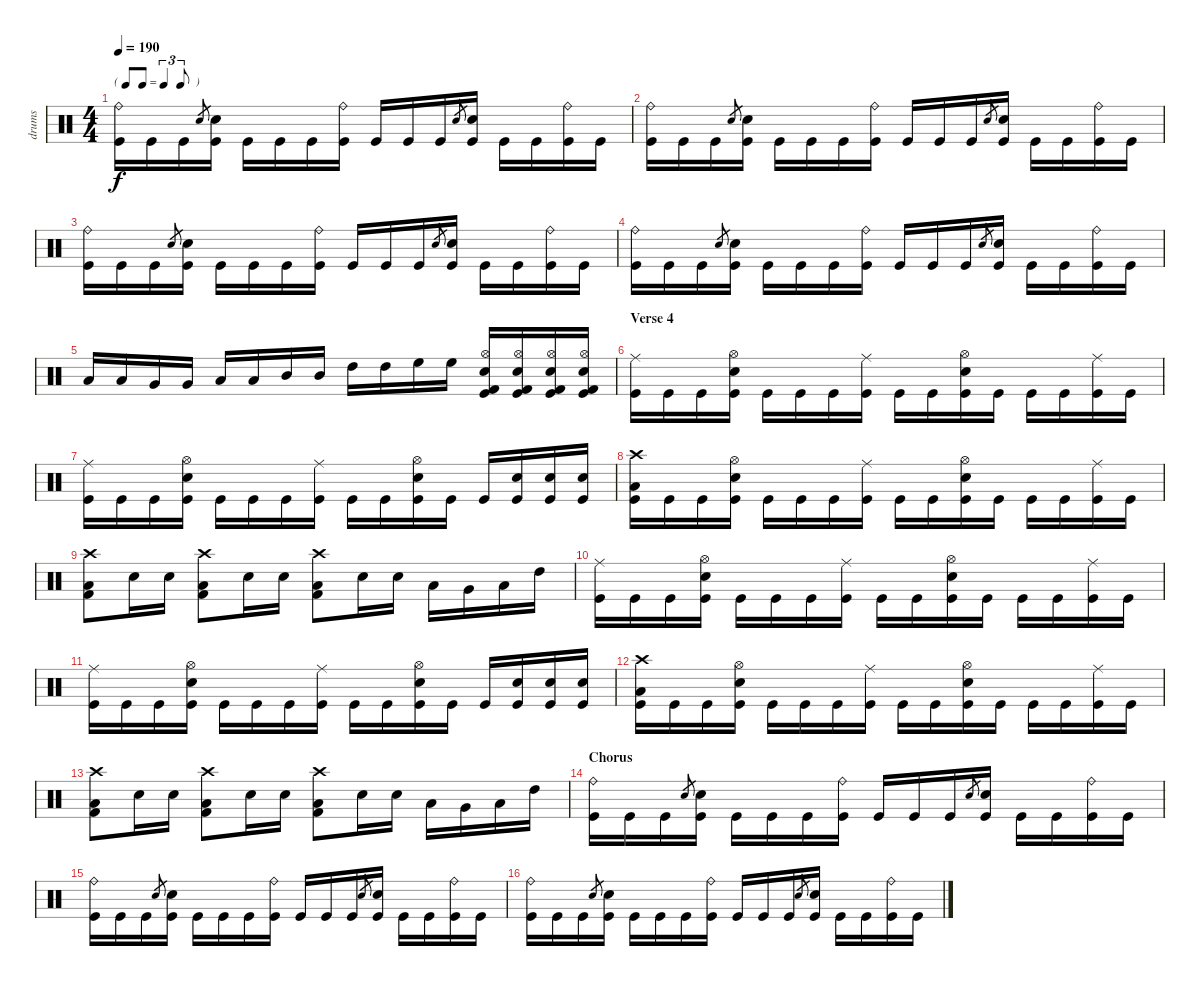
\track ("drums" "drums") {instrument percussion}
\staff {score}
\articulation defaults
\ts (4 4)
\tf triplet8th
\tempo 190
\clef neutral
\ks c
("Kick (hit)" "Ride (bell)").16{dy f} "Kick (hit)".16 "Kick (hit)".16 "Electric Snare (hit)".8{gr} ("Kick (hit)" "Electric Snare (hit)").16 "Kick (hit)".16 "Kick (hit)".16 "Kick (hit)".16 ("Kick (hit)" "Ride (bell)").16 "Kick (hit)".16 "Kick (hit)".16 "Kick (hit)".16 "Electric Snare (hit)".8{gr} ("Kick (hit)" "Electric Snare (hit)").16 "Kick (hit)".16 "Kick (hit)".16 ("Kick (hit)" "Ride (bell)").16 "Kick (hit)".16 |
("Kick (hit)" "Ride (bell)").16 "Kick (hit)".16 "Kick (hit)".16 "Electric Snare (hit)".8{gr} ("Kick (hit)" "Electric Snare (hit)").16 "Kick (hit)".16 "Kick (hit)".16 "Kick (hit)".16 ("Kick (hit)" "Ride (bell)").16 "Kick (hit)".16 "Kick (hit)".16 "Kick (hit)".16 "Electric Snare (hit)".8{gr} ("Kick (hit)" "Electric Snare (hit)").16 "Kick (hit)".16 "Kick (hit)".16 ("Kick (hit)" "Ride (bell)").16 "Kick (hit)".16 |
("Kick (hit)" "Ride (bell)").16 "Kick (hit)".16 "Kick (hit)".16 "Electric Snare (hit)".8{gr} ("Kick (hit)" "Electric Snare (hit)").16 "Kick (hit)".16 "Kick (hit)".16 "Kick (hit)".16 ("Kick (hit)" "Ride (bell)").16 "Kick (hit)".16 "Kick (hit)".16 "Kick (hit)".16 "Electric Snare (hit)".8{gr} ("Kick (hit)" "Electric Snare (hit)").16 "Kick (hit)".16 "Kick (hit)".16 ("Kick (hit)" "Ride (bell)").16 "Kick (hit)".16 |
("Kick (hit)" "Ride (bell)").16 "Kick (hit)".16 "Kick (hit)".16 "Electric Snare (hit)".8{gr} ("Kick (hit)" "Electric Snare (hit)").16 "Kick (hit)".16 "Kick (hit)".16 "Kick (hit)".16 ("Kick (hit)" "Ride (bell)").16 "Kick (hit)".16 "Kick (hit)".16 "Kick (hit)".16 "Electric Snare (hit)".8{gr} ("Kick (hit)" "Electric Snare (hit)").16 "Kick (hit)".16 "Kick (hit)".16 ("Kick (hit)" "Ride (bell)").16 "Kick (hit)".16 |
"Low Floor Tom (hit)".16 "Low Floor Tom (hit)".16 "Very Low Tom (hit)".16 "Very Low Tom (hit)".16 "Low Tom (hit)".16 "Low Tom (hit)".16 "Mid Tom (hit)".16 "Mid Tom (hit)".16 "High Tom (hit)".16 "High Tom (hit)".16 "High Floor Tom (hit)".16 "High Floor Tom (hit)".16 ("Hi-Hat (open)" "Snare (hit) 2" "Kick (hit) 2" "Kick (hit)").16 ("Hi-Hat (open)" "Snare (hit) 2" "Kick (hit) 2" "Kick (hit)").16 ("Hi-Hat (open)" "Snare (hit) 2" "Kick (hit) 2" "Kick (hit)").16 ("Hi-Hat (open)" "Snare (hit) 2" "Kick (hit) 2" "Kick (hit)").16 |
\section ("" "Verse 4")
("Ride (middle)" "Kick (hit)").16 "Kick (hit)".16 "Kick (hit)".16 ("Hi-Hat (open)" "Electric Snare (hit)" "Kick (hit)").16 "Kick (hit)".16 "Kick (hit)".16 "Kick (hit)".16 ("Ride (middle)" "Kick (hit)").16 "Kick (hit)".16 "Kick (hit)".16 ("Hi-Hat (open)" "Electric Snare (hit)" "Kick (hit)").16 "Kick (hit)".16 "Kick (hit)".16 "Kick (hit)".16 ("Ride (middle)" "Kick (hit)").16 "Kick (hit)".16 |
("Ride (middle)" "Kick (hit)").16 "Kick (hit)".16 "Kick (hit)".16 ("Hi-Hat (open)" "Electric Snare (hit)" "Kick (hit)").16 "Kick (hit)".16 "Kick (hit)".16 "Kick (hit)".16 ("Ride (middle)" "Kick (hit)").16 "Kick (hit)".16 "Kick (hit)".16 ("Hi-Hat (open)" "Electric Snare (hit)" "Kick (hit)").16 "Kick (hit)".16 "Kick (hit)".16 ("Snare (hit) 2" "Kick (hit)").16 ("Snare (hit) 2" "Kick (hit)").16 ("Snare (hit) 2" "Kick (hit)").16 |
("Crash high (hit)" "Low Tom (hit)" "Kick (hit)").16 "Kick (hit)".16 "Kick (hit)".16 ("Hi-Hat (open)" "Electric Snare (hit)" "Kick (hit)").16 "Kick (hit)".16 "Kick (hit)".16 "Kick (hit)".16 ("Ride (middle)" "Kick (hit)").16 "Kick (hit)".16 "Kick (hit)".16 ("Hi-Hat (open)" "Electric Snare (hit)" "Kick (hit)").16 "Kick (hit)".16 "Kick (hit)".16 "Kick (hit)".16 ("Ride (middle)" "Kick (hit)").16 "Kick (hit)".16 |
("Crash high (hit)" "Low Floor Tom (hit)" "Kick (hit) 2").8 "Snare (hit) 2".16 "Snare (hit) 2".16 ("Crash high (hit)" "Low Floor Tom (hit)" "Kick (hit) 2").8 "Snare (hit) 2".16 "Snare (hit) 2".16 ("Crash high (hit)" "Low Floor Tom (hit)" "Kick (hit) 2").8 "Snare (hit) 2".16 "Snare (hit) 2".16 "Low Floor Tom (hit)".16 "Very Low Tom (hit)".16 "Low Tom (hit)".16 "High Tom (hit)".16 |
("Ride (middle)" "Kick (hit)").16 "Kick (hit)".16 "Kick (hit)".16 ("Hi-Hat (open)" "Electric Snare (hit)" "Kick (hit)").16 "Kick (hit)".16 "Kick (hit)".16 "Kick (hit)".16 ("Ride (middle)" "Kick (hit)").16 "Kick (hit)".16 "Kick (hit)".16 ("Hi-Hat (open)" "Electric Snare (hit)" "Kick (hit)").16 "Kick (hit)".16 "Kick (hit)".16 "Kick (hit)".16 ("Ride (middle)" "Kick (hit)").16 "Kick (hit)".16 |
("Ride (middle)" "Kick (hit)").16 "Kick (hit)".16 "Kick (hit)".16 ("Hi-Hat (open)" "Electric Snare (hit)" "Kick (hit)").16 "Kick (hit)".16 "Kick (hit)".16 "Kick (hit)".16 ("Ride (middle)" "Kick (hit)").16 "Kick (hit)".16 "Kick (hit)".16 ("Hi-Hat (open)" "Electric Snare (hit)" "Kick (hit)").16 "Kick (hit)".16 "Kick (hit)".16 ("Snare (hit) 2" "Kick (hit)").16 ("Snare (hit) 2" "Kick (hit)").16 ("Snare (hit) 2" "Kick (hit)").16 |
("Crash high (hit)" "Low Tom (hit)" "Kick (hit)").16 "Kick (hit)".16 "Kick (hit)".16 ("Hi-Hat (open)" "Electric Snare (hit)" "Kick (hit)").16 "Kick (hit)".16 "Kick (hit)".16 "Kick (hit)".16 ("Ride (middle)" "Kick (hit)").16 "Kick (hit)".16 "Kick (hit)".16 ("Hi-Hat (open)" "Electric Snare (hit)" "Kick (hit)").16 "Kick (hit)".16 "Kick (hit)".16 "Kick (hit)".16 ("Ride (middle)" "Kick (hit)").16 "Kick (hit)".16 |
("Crash high (hit)" "Low Floor Tom (hit)" "Kick (hit) 2").8 "Snare (hit) 2".16 "Snare (hit) 2".16 ("Crash high (hit)" "Low Floor Tom (hit)" "Kick (hit) 2").8 "Snare (hit) 2".16 "Snare (hit) 2".16 ("Crash high (hit)" "Low Floor Tom (hit)" "Kick (hit) 2").8 "Snare (hit) 2".16 "Snare (hit) 2".16 "Low Floor Tom (hit)".16 "Very Low Tom (hit)".16 "Low Tom (hit)".16 "High Tom (hit)".16 |
\section ("" "Chorus")
("Kick (hit)" "Ride (bell)").16 "Kick (hit)".16 "Kick (hit)".16 "Electric Snare (hit)".8{gr} ("Kick (hit)" "Electric Snare (hit)").16 "Kick (hit)".16 "Kick (hit)".16 "Kick (hit)".16 ("Kick (hit)" "Ride (bell)").16 "Kick (hit)".16 "Kick (hit)".16 "Kick (hit)".16 "Electric Snare (hit)".8{gr} ("Kick (hit)" "Electric Snare (hit)").16 "Kick (hit)".16 "Kick (hit)".16 ("Kick (hit)" "Ride (bell)").16 "Kick (hit)".16 |
("Kick (hit)" "Ride (bell)").16 "Kick (hit)".16 "Kick (hit)".16 "Electric Snare (hit)".8{gr} ("Kick (hit)" "Electric Snare (hit)").16 "Kick (hit)".16 "Kick (hit)".16 "Kick (hit)".16 ("Kick (hit)" "Ride (bell)").16 "Kick (hit)".16 "Kick (hit)".16 "Kick (hit)".16 "Electric Snare (hit)".8{gr} ("Kick (hit)" "Electric Snare (hit)").16 "Kick (hit)".16 "Kick (hit)".16 ("Kick (hit)" "Ride (bell)").16 "Kick (hit)".16 |
("Kick (hit)" "Ride (bell)").16 "Kick (hit)".16 "Kick (hit)".16 "Electric Snare (hit)".8{gr} ("Kick (hit)" "Electric Snare (hit)").16 "Kick (hit)".16 "Kick (hit)".16 "Kick (hit)".16 ("Kick (hit)" "Ride (bell)").16 "Kick (hit)".16 "Kick (hit)".16 "Kick (hit)".16 "Electric Snare (hit)".8{gr} ("Kick (hit)" "Electric Snare (hit)").16 "Kick (hit)".16 "Kick (hit)".16 ("Kick (hit)" "Ride (bell)").16 "Kick (hit)".16
